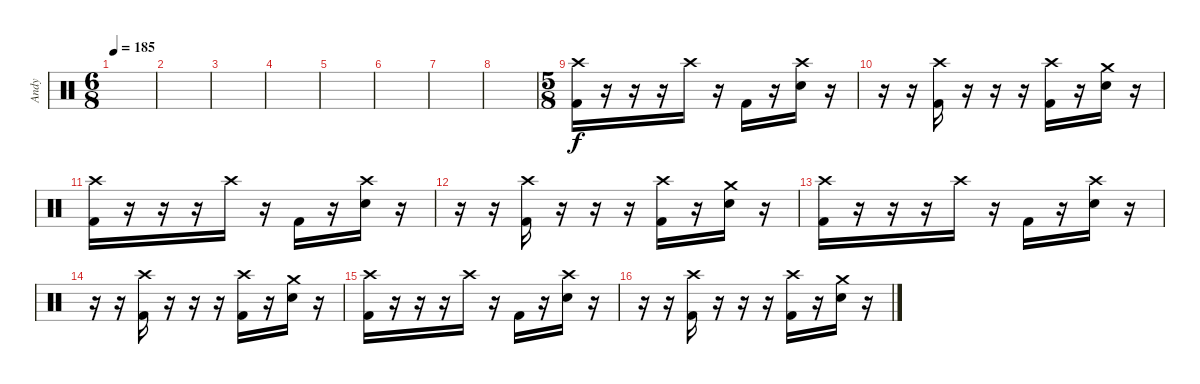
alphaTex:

\track ("Andy" "Andy") {instrument percussion}
\staff {score}
\articulation defaults
\ts (6 8)
\tempo 185
\clef neutral
\ks c
|
|
|
|
|
|
|
|
\ts (5 8)
("Crash high (hit)" "Kick (hit) 2").16 r.16 r.16 r.16 "Crash high (hit)".16 r.16 "Kick (hit) 2".16 r.16 ("Crash high (hit)" "Electric Snare (hit)").16 r.16 |
r.16 r.16 ("Crash high (hit)" "Kick (hit) 2").16 r.16 r.16 r.16 ("Crash high (hit)" "Kick (hit) 2").16 r.16 ("Crash medium (hit)" "Electric Snare (hit)").16 r.16 |
("Crash high (hit)" "Kick (hit) 2").16 r.16 r.16 r.16 "Crash high (hit)".16 r.16 "Kick (hit) 2".16 r.16 ("Crash high (hit)" "Electric Snare (hit)").16 r.16 |
r.16 r.16 ("Crash high (hit)" "Kick (hit) 2").16 r.16 r.16 r.16 ("Crash high (hit)" "Kick (hit) 2").16 r.16 ("Crash medium (hit)" "Electric Snare (hit)").16 r.16 |
("Crash high (hit)" "Kick (hit) 2").16 r.16 r.16 r.16 "Crash high (hit)".16 r.16 "Kick (hit) 2".16 r.16 ("Crash high (hit)" "Electric Snare (hit)").16 r.16 |
r.16 r.16 ("Crash high (hit)" "Kick (hit) 2").16 r.16 r.16 r.16 ("Crash high (hit)" "Kick (hit) 2").16 r.16 ("Crash medium (hit)" "Electric Snare (hit)").16 r.16 |
("Crash high (hit)" "Kick (hit) 2").16 r.16 r.16 r.16 "Crash high (hit)".16 r.16 "Kick (hit) 2".16 r.16 ("Crash high (hit)" "Electric Snare (hit)").16 r.16 |
r.16 r.16 ("Crash high (hit)" "Kick (hit) 2").16 r.16 r.16 r.16 ("Crash high (hit)" "Kick (hit) 2").16 r.16 ("Crash medium (hit)" "Electric Snare (hit)").16 r.16
